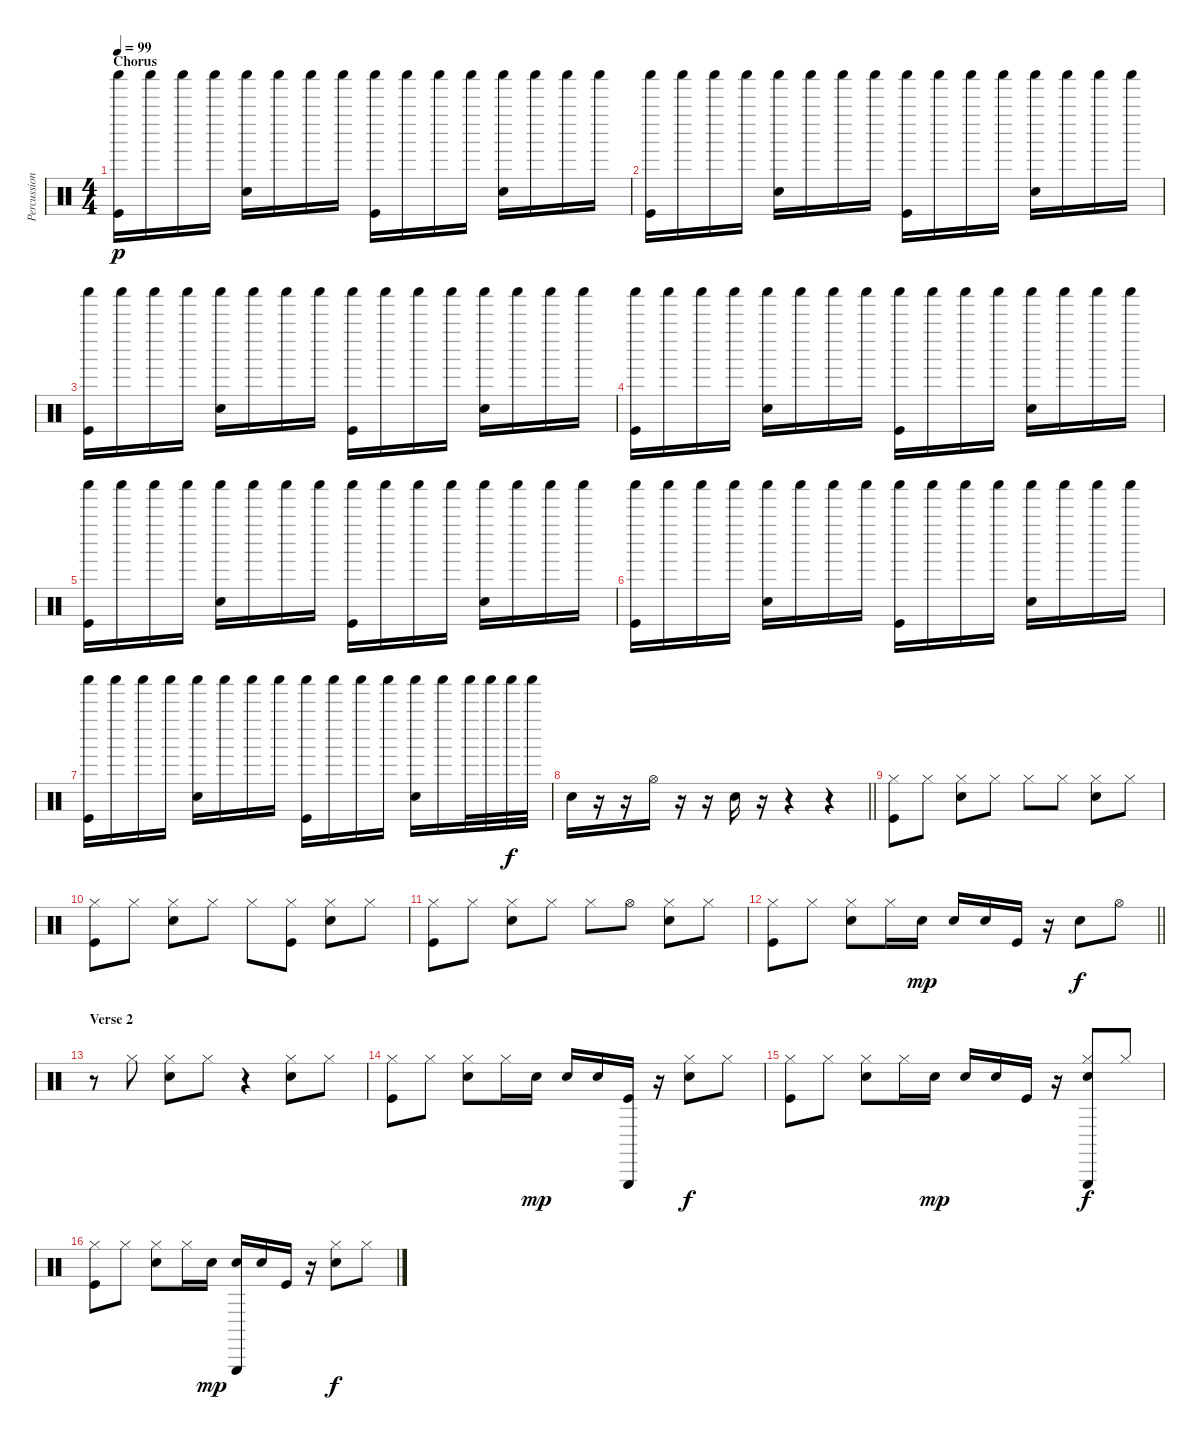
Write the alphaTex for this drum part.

\track ("Percussion" "Percussion") {instrument percussion}
\staff {score}
\articulation defaults
\ts (4 4)
\section ("" "Chorus")
\tempo 99
\clef neutral
\ks c
("Shaker (hit)" "Kick (hit)").16{dy p} "Shaker (hit)".16 "Shaker (hit)".16 "Shaker (hit)".16 ("Shaker (hit)" "Snare (hit) 2").16 "Shaker (hit)".16 "Shaker (hit)".16 "Shaker (hit)".16 ("Shaker (hit)" "Kick (hit)").16 "Shaker (hit)".16 "Shaker (hit)".16 "Shaker (hit)".16 ("Shaker (hit)" "Snare (hit) 2").16 "Shaker (hit)".16 "Shaker (hit)".16 "Shaker (hit)".16 |
("Shaker (hit)" "Kick (hit)").16 "Shaker (hit)".16 "Shaker (hit)".16 "Shaker (hit)".16 ("Shaker (hit)" "Snare (hit) 2").16 "Shaker (hit)".16 "Shaker (hit)".16 "Shaker (hit)".16 ("Shaker (hit)" "Kick (hit)").16 "Shaker (hit)".16 "Shaker (hit)".16 "Shaker (hit)".16 ("Shaker (hit)" "Snare (hit) 2").16 "Shaker (hit)".16 "Shaker (hit)".16 "Shaker (hit)".16 |
("Shaker (hit)" "Kick (hit)").16 "Shaker (hit)".16 "Shaker (hit)".16 "Shaker (hit)".16 ("Shaker (hit)" "Snare (hit) 2").16 "Shaker (hit)".16 "Shaker (hit)".16 "Shaker (hit)".16 ("Shaker (hit)" "Kick (hit)").16 "Shaker (hit)".16 "Shaker (hit)".16 "Shaker (hit)".16 ("Shaker (hit)" "Snare (hit) 2").16 "Shaker (hit)".16 "Shaker (hit)".16 "Shaker (hit)".16 |
("Shaker (hit)" "Kick (hit)").16 "Shaker (hit)".16 "Shaker (hit)".16 "Shaker (hit)".16 ("Shaker (hit)" "Snare (hit) 2").16 "Shaker (hit)".16 "Shaker (hit)".16 "Shaker (hit)".16 ("Shaker (hit)" "Kick (hit)").16 "Shaker (hit)".16 "Shaker (hit)".16 "Shaker (hit)".16 ("Shaker (hit)" "Snare (hit) 2").16 "Shaker (hit)".16 "Shaker (hit)".16 "Shaker (hit)".16 |
("Shaker (hit)" "Kick (hit)").16 "Shaker (hit)".16 "Shaker (hit)".16 "Shaker (hit)".16 ("Shaker (hit)" "Snare (hit) 2").16 "Shaker (hit)".16 "Shaker (hit)".16 "Shaker (hit)".16 ("Shaker (hit)" "Kick (hit)").16 "Shaker (hit)".16 "Shaker (hit)".16 "Shaker (hit)".16 ("Shaker (hit)" "Snare (hit) 2").16 "Shaker (hit)".16 "Shaker (hit)".16 "Shaker (hit)".16 |
("Shaker (hit)" "Kick (hit)").16 "Shaker (hit)".16 "Shaker (hit)".16 "Shaker (hit)".16 ("Shaker (hit)" "Snare (hit) 2").16 "Shaker (hit)".16 "Shaker (hit)".16 "Shaker (hit)".16 ("Shaker (hit)" "Kick (hit)").16 "Shaker (hit)".16 "Shaker (hit)".16 "Shaker (hit)".16 ("Shaker (hit)" "Snare (hit) 2").16 "Shaker (hit)".16 "Shaker (hit)".16 "Shaker (hit)".16 |
("Shaker (hit)" "Kick (hit)").16 "Shaker (hit)".16 "Shaker (hit)".16 "Shaker (hit)".16 ("Shaker (hit)" "Snare (hit) 2").16 "Shaker (hit)".16 "Shaker (hit)".16 "Shaker (hit)".16 ("Shaker (hit)" "Kick (hit)").16 "Shaker (hit)".16 "Shaker (hit)".16 "Shaker (hit)".16 ("Shaker (hit)" "Snare (hit) 2").16 "Shaker (hit)".16 "Shaker (hit)".32 "Shaker (hit)".32 "Shaker (hit)".32{dy f} "Shaker (hit)".32 |
\barLineRight lightlight "Snare (hit) 2".16
r.16 r.16 "Hi-Hat (open)".16 r.16 r.16 "Snare (hit) 2".16 r.16 r.4 r.4 |
\section ("" "")
("Hi-Hat (closed)" "Kick (hit)").8 "Hi-Hat (closed)".8 ("Hi-Hat (closed)" "Snare (hit) 2").8 "Hi-Hat (closed)".8 "Hi-Hat (closed)".8 "Hi-Hat (closed)".8 ("Hi-Hat (closed)" "Snare (hit) 2").8 "Hi-Hat (closed)".8 |
("Hi-Hat (closed)" "Kick (hit)").8 "Hi-Hat (closed)".8 ("Hi-Hat (closed)" "Snare (hit) 2").8 "Hi-Hat (closed)".8 "Hi-Hat (closed)".8 ("Hi-Hat (closed)" "Kick (hit)").8 ("Hi-Hat (closed)" "Snare (hit) 2").8 "Hi-Hat (closed)".8 |
("Hi-Hat (closed)" "Kick (hit)").8 "Hi-Hat (closed)".8 ("Hi-Hat (closed)" "Snare (hit) 2").8 "Hi-Hat (closed)".8 "Hi-Hat (closed)".8 "Hi-Hat (open)".8 ("Hi-Hat (closed)" "Snare (hit) 2").8 "Hi-Hat (closed)".8 |
\barLineRight lightlight
("Hi-Hat (closed)" "Kick (hit)").8 "Hi-Hat (closed)".8 ("Hi-Hat (closed)" "Snare (hit) 2").8 "Hi-Hat (closed)".16 "Electric Snare (hit)".16{dy mp} "Snare (hit) 2".16 "Electric Snare (hit)".16 "Kick (hit)".16 r.16 "Snare (hit) 2".8{dy f} "Hi-Hat (open)".8 |
\section ("" "Verse 2")
r.8 "Hi-Hat (closed)".8 ("Hi-Hat (closed)" "Snare (hit) 2").8 "Hi-Hat (closed)".8 r.4 ("Hi-Hat (closed)" "Snare (hit) 2").8 "Hi-Hat (closed)".8 |
("Hi-Hat (closed)" "Kick (hit)").8 "Hi-Hat (closed)".8 ("Hi-Hat (closed)" "Snare (hit) 2").8 "Hi-Hat (closed)".16 "Electric Snare (hit)".16{dy mp} "Snare (hit) 2".16 "Electric Snare (hit)".16 ("Triangle (hit)" "Kick (hit)").16 r.16 ("Hi-Hat (closed)" "Snare (hit) 2").8{dy f} "Hi-Hat (closed)".8 |
("Hi-Hat (closed)" "Kick (hit)").8 "Hi-Hat (closed)".8 ("Hi-Hat (closed)" "Snare (hit) 2").8 "Hi-Hat (closed)".16 "Electric Snare (hit)".16{dy mp} "Snare (hit) 2".16 "Electric Snare (hit)".16 "Kick (hit)".16 r.16 ("Triangle (hit)" "Hi-Hat (closed)" "Snare (hit) 2").8{dy f} "Hi-Hat (closed)".8 |
("Hi-Hat (closed)" "Kick (hit)").8 "Hi-Hat (closed)".8 ("Hi-Hat (closed)" "Snare (hit) 2").8 "Hi-Hat (closed)".16 "Electric Snare (hit)".16{dy mp} ("Triangle (hit)" "Snare (hit) 2").16 "Electric Snare (hit)".16 "Kick (hit)".16 r.16 ("Hi-Hat (closed)" "Snare (hit) 2").8{dy f} "Hi-Hat (closed)".8
